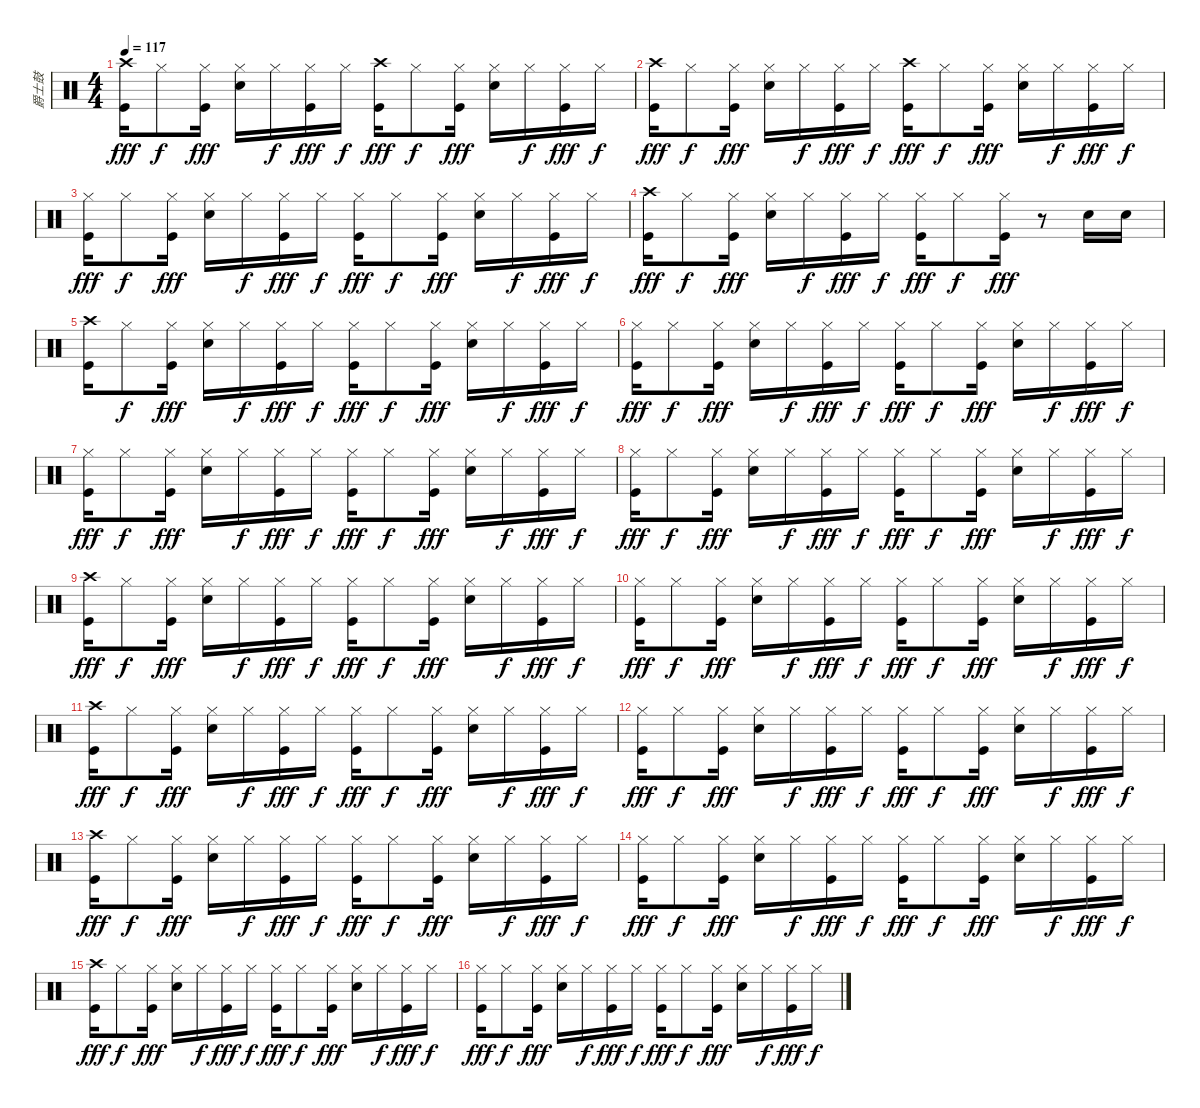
\track ("爵士鼓" "爵士鼓") {instrument percussion}
\staff {score}
\articulation defaults
\ts (4 4)
\tempo 117
\clef neutral
\ks c
("Kick (hit)" "Crash high (hit)").16{dy fff} "Hi-Hat (closed)".8{dy f} ("Kick (hit)" "Hi-Hat (closed)").16{dy fff} ("Snare (hit) 2" "Hi-Hat (closed)").16 "Hi-Hat (closed)".16{dy f} ("Kick (hit)" "Hi-Hat (closed)").16{dy fff} "Hi-Hat (closed)".16{dy f} ("Kick (hit)" "Crash high (hit)").16{dy fff} "Hi-Hat (closed)".8{dy f} ("Kick (hit)" "Hi-Hat (closed)").16{dy fff} ("Snare (hit) 2" "Hi-Hat (closed)").16 "Hi-Hat (closed)".16{dy f} ("Kick (hit)" "Hi-Hat (closed)").16{dy fff} "Hi-Hat (closed)".16{dy f} |
("Kick (hit)" "Crash high (hit)").16{dy fff} "Hi-Hat (closed)".8{dy f} ("Kick (hit)" "Hi-Hat (closed)").16{dy fff} ("Snare (hit) 2" "Hi-Hat (closed)").16 "Hi-Hat (closed)".16{dy f} ("Kick (hit)" "Hi-Hat (closed)").16{dy fff} "Hi-Hat (closed)".16{dy f} ("Kick (hit)" "Crash high (hit)").16{dy fff} "Hi-Hat (closed)".8{dy f} ("Kick (hit)" "Hi-Hat (closed)").16{dy fff} ("Snare (hit) 2" "Hi-Hat (closed)").16 "Hi-Hat (closed)".16{dy f} ("Kick (hit)" "Hi-Hat (closed)").16{dy fff} "Hi-Hat (closed)".16{dy f} |
("Kick (hit)" "Hi-Hat (closed)").16{dy fff} "Hi-Hat (closed)".8{dy f} ("Kick (hit)" "Hi-Hat (closed)").16{dy fff} ("Snare (hit) 2" "Hi-Hat (closed)").16 "Hi-Hat (closed)".16{dy f} ("Kick (hit)" "Hi-Hat (closed)").16{dy fff} "Hi-Hat (closed)".16{dy f} ("Kick (hit)" "Hi-Hat (closed)").16{dy fff} "Hi-Hat (closed)".8{dy f} ("Kick (hit)" "Hi-Hat (closed)").16{dy fff} ("Snare (hit) 2" "Hi-Hat (closed)").16 "Hi-Hat (closed)".16{dy f} ("Kick (hit)" "Hi-Hat (closed)").16{dy fff} "Hi-Hat (closed)".16{dy f} |
("Kick (hit)" "Crash high (hit)").16{dy fff} "Hi-Hat (closed)".8{dy f} ("Kick (hit)" "Hi-Hat (closed)").16{dy fff} ("Snare (hit) 2" "Hi-Hat (closed)").16 "Hi-Hat (closed)".16{dy f} ("Kick (hit)" "Hi-Hat (closed)").16{dy fff} "Hi-Hat (closed)".16{dy f} ("Kick (hit)" "Hi-Hat (closed)").16{dy fff} "Hi-Hat (closed)".8{dy f} ("Kick (hit)" "Hi-Hat (closed)").16{dy fff} r.8 "Snare (hit) 2".16 "Snare (hit) 2".16 |
("Kick (hit)" "Crash high (hit)").16 "Hi-Hat (closed)".8{dy f} ("Kick (hit)" "Hi-Hat (closed)").16{dy fff} ("Snare (hit) 2" "Hi-Hat (closed)").16 "Hi-Hat (closed)".16{dy f} ("Kick (hit)" "Hi-Hat (closed)").16{dy fff} "Hi-Hat (closed)".16{dy f} ("Kick (hit)" "Hi-Hat (closed)").16{dy fff} "Hi-Hat (closed)".8{dy f} ("Kick (hit)" "Hi-Hat (closed)").16{dy fff} ("Snare (hit) 2" "Hi-Hat (closed)").16 "Hi-Hat (closed)".16{dy f} ("Kick (hit)" "Hi-Hat (closed)").16{dy fff} "Hi-Hat (closed)".16{dy f} |
("Kick (hit)" "Hi-Hat (closed)").16{dy fff} "Hi-Hat (closed)".8{dy f} ("Kick (hit)" "Hi-Hat (closed)").16{dy fff} ("Snare (hit) 2" "Hi-Hat (closed)").16 "Hi-Hat (closed)".16{dy f} ("Kick (hit)" "Hi-Hat (closed)").16{dy fff} "Hi-Hat (closed)".16{dy f} ("Kick (hit)" "Hi-Hat (closed)").16{dy fff} "Hi-Hat (closed)".8{dy f} ("Kick (hit)" "Hi-Hat (closed)").16{dy fff} ("Snare (hit) 2" "Hi-Hat (closed)").16 "Hi-Hat (closed)".16{dy f} ("Kick (hit)" "Hi-Hat (closed)").16{dy fff} "Hi-Hat (closed)".16{dy f} |
("Kick (hit)" "Hi-Hat (closed)").16{dy fff} "Hi-Hat (closed)".8{dy f} ("Kick (hit)" "Hi-Hat (closed)").16{dy fff} ("Snare (hit) 2" "Hi-Hat (closed)").16 "Hi-Hat (closed)".16{dy f} ("Kick (hit)" "Hi-Hat (closed)").16{dy fff} "Hi-Hat (closed)".16{dy f} ("Kick (hit)" "Hi-Hat (closed)").16{dy fff} "Hi-Hat (closed)".8{dy f} ("Kick (hit)" "Hi-Hat (closed)").16{dy fff} ("Snare (hit) 2" "Hi-Hat (closed)").16 "Hi-Hat (closed)".16{dy f} ("Kick (hit)" "Hi-Hat (closed)").16{dy fff} "Hi-Hat (closed)".16{dy f} |
("Kick (hit)" "Hi-Hat (closed)").16{dy fff} "Hi-Hat (closed)".8{dy f} ("Kick (hit)" "Hi-Hat (closed)").16{dy fff} ("Snare (hit) 2" "Hi-Hat (closed)").16 "Hi-Hat (closed)".16{dy f} ("Kick (hit)" "Hi-Hat (closed)").16{dy fff} "Hi-Hat (closed)".16{dy f} ("Kick (hit)" "Hi-Hat (closed)").16{dy fff} "Hi-Hat (closed)".8{dy f} ("Kick (hit)" "Hi-Hat (closed)").16{dy fff} ("Snare (hit) 2" "Hi-Hat (closed)").16 "Hi-Hat (closed)".16{dy f} ("Kick (hit)" "Hi-Hat (closed)").16{dy fff} "Hi-Hat (closed)".16{dy f} |
("Kick (hit)" "Crash high (hit)").16{dy fff} "Hi-Hat (closed)".8{dy f} ("Kick (hit)" "Hi-Hat (closed)").16{dy fff} ("Snare (hit) 2" "Hi-Hat (closed)").16 "Hi-Hat (closed)".16{dy f} ("Kick (hit)" "Hi-Hat (closed)").16{dy fff} "Hi-Hat (closed)".16{dy f} ("Kick (hit)" "Hi-Hat (closed)").16{dy fff} "Hi-Hat (closed)".8{dy f} ("Kick (hit)" "Hi-Hat (closed)").16{dy fff} ("Snare (hit) 2" "Hi-Hat (closed)").16 "Hi-Hat (closed)".16{dy f} ("Kick (hit)" "Hi-Hat (closed)").16{dy fff} "Hi-Hat (closed)".16{dy f} |
("Kick (hit)" "Hi-Hat (closed)").16{dy fff} "Hi-Hat (closed)".8{dy f} ("Kick (hit)" "Hi-Hat (closed)").16{dy fff} ("Snare (hit) 2" "Hi-Hat (closed)").16 "Hi-Hat (closed)".16{dy f} ("Kick (hit)" "Hi-Hat (closed)").16{dy fff} "Hi-Hat (closed)".16{dy f} ("Kick (hit)" "Hi-Hat (closed)").16{dy fff} "Hi-Hat (closed)".8{dy f} ("Kick (hit)" "Hi-Hat (closed)").16{dy fff} ("Snare (hit) 2" "Hi-Hat (closed)").16 "Hi-Hat (closed)".16{dy f} ("Kick (hit)" "Hi-Hat (closed)").16{dy fff} "Hi-Hat (closed)".16{dy f} |
("Kick (hit)" "Crash high (hit)").16{dy fff} "Hi-Hat (closed)".8{dy f} ("Kick (hit)" "Hi-Hat (closed)").16{dy fff} ("Snare (hit) 2" "Hi-Hat (closed)").16 "Hi-Hat (closed)".16{dy f} ("Kick (hit)" "Hi-Hat (closed)").16{dy fff} "Hi-Hat (closed)".16{dy f} ("Kick (hit)" "Hi-Hat (closed)").16{dy fff} "Hi-Hat (closed)".8{dy f} ("Kick (hit)" "Hi-Hat (closed)").16{dy fff} ("Snare (hit) 2" "Hi-Hat (closed)").16 "Hi-Hat (closed)".16{dy f} ("Kick (hit)" "Hi-Hat (closed)").16{dy fff} "Hi-Hat (closed)".16{dy f} |
("Kick (hit)" "Hi-Hat (closed)").16{dy fff} "Hi-Hat (closed)".8{dy f} ("Kick (hit)" "Hi-Hat (closed)").16{dy fff} ("Snare (hit) 2" "Hi-Hat (closed)").16 "Hi-Hat (closed)".16{dy f} ("Kick (hit)" "Hi-Hat (closed)").16{dy fff} "Hi-Hat (closed)".16{dy f} ("Kick (hit)" "Hi-Hat (closed)").16{dy fff} "Hi-Hat (closed)".8{dy f} ("Kick (hit)" "Hi-Hat (closed)").16{dy fff} ("Snare (hit) 2" "Hi-Hat (closed)").16 "Hi-Hat (closed)".16{dy f} ("Kick (hit)" "Hi-Hat (closed)").16{dy fff} "Hi-Hat (closed)".16{dy f} |
("Kick (hit)" "Crash high (hit)").16{dy fff} "Hi-Hat (closed)".8{dy f} ("Kick (hit)" "Hi-Hat (closed)").16{dy fff} ("Snare (hit) 2" "Hi-Hat (closed)").16 "Hi-Hat (closed)".16{dy f} ("Kick (hit)" "Hi-Hat (closed)").16{dy fff} "Hi-Hat (closed)".16{dy f} ("Kick (hit)" "Hi-Hat (closed)").16{dy fff} "Hi-Hat (closed)".8{dy f} ("Kick (hit)" "Hi-Hat (closed)").16{dy fff} ("Snare (hit) 2" "Hi-Hat (closed)").16 "Hi-Hat (closed)".16{dy f} ("Kick (hit)" "Hi-Hat (closed)").16{dy fff} "Hi-Hat (closed)".16{dy f} |
("Kick (hit)" "Hi-Hat (closed)").16{dy fff} "Hi-Hat (closed)".8{dy f} ("Kick (hit)" "Hi-Hat (closed)").16{dy fff} ("Snare (hit) 2" "Hi-Hat (closed)").16 "Hi-Hat (closed)".16{dy f} ("Kick (hit)" "Hi-Hat (closed)").16{dy fff} "Hi-Hat (closed)".16{dy f} ("Kick (hit)" "Hi-Hat (closed)").16{dy fff} "Hi-Hat (closed)".8{dy f} ("Kick (hit)" "Hi-Hat (closed)").16{dy fff} ("Snare (hit) 2" "Hi-Hat (closed)").16 "Hi-Hat (closed)".16{dy f} ("Kick (hit)" "Hi-Hat (closed)").16{dy fff} "Hi-Hat (closed)".16{dy f} |
("Kick (hit)" "Crash high (hit)").16{dy fff} "Hi-Hat (closed)".8{dy f} ("Kick (hit)" "Hi-Hat (closed)").16{dy fff} ("Snare (hit) 2" "Hi-Hat (closed)").16 "Hi-Hat (closed)".16{dy f} ("Kick (hit)" "Hi-Hat (closed)").16{dy fff} "Hi-Hat (closed)".16{dy f} ("Kick (hit)" "Hi-Hat (closed)").16{dy fff} "Hi-Hat (closed)".8{dy f} ("Kick (hit)" "Hi-Hat (closed)").16{dy fff} ("Snare (hit) 2" "Hi-Hat (closed)").16 "Hi-Hat (closed)".16{dy f} ("Kick (hit)" "Hi-Hat (closed)").16{dy fff} "Hi-Hat (closed)".16{dy f} |
("Kick (hit)" "Hi-Hat (closed)").16{dy fff} "Hi-Hat (closed)".8{dy f} ("Kick (hit)" "Hi-Hat (closed)").16{dy fff} ("Snare (hit) 2" "Hi-Hat (closed)").16 "Hi-Hat (closed)".16{dy f} ("Kick (hit)" "Hi-Hat (closed)").16{dy fff} "Hi-Hat (closed)".16{dy f} ("Kick (hit)" "Hi-Hat (closed)").16{dy fff} "Hi-Hat (closed)".8{dy f} ("Kick (hit)" "Hi-Hat (closed)").16{dy fff} ("Snare (hit) 2" "Hi-Hat (closed)").16 "Hi-Hat (closed)".16{dy f} ("Kick (hit)" "Hi-Hat (closed)").16{dy fff} "Hi-Hat (closed)".16{dy f}
